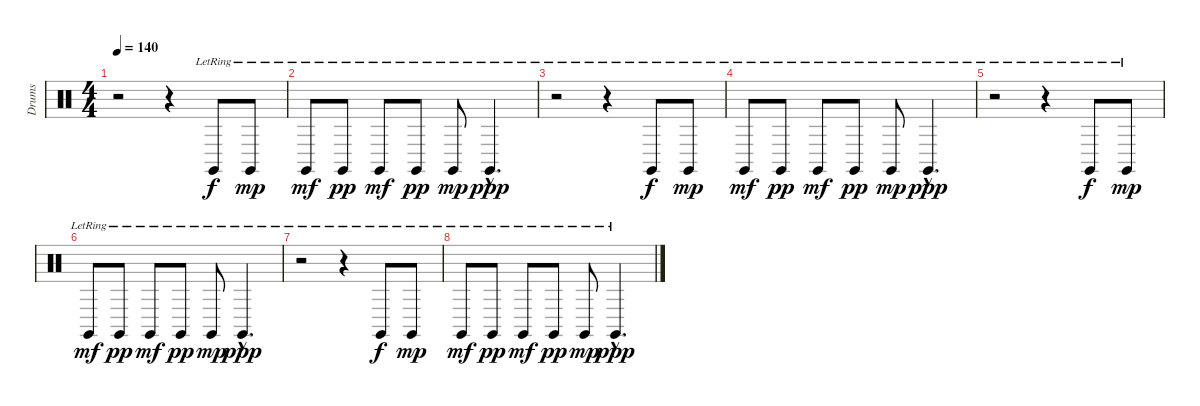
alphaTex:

\track ("Drums" "Drums") {instrument percussion}
\staff {score}
\articulation defaults
\ts (4 4)
\tempo 140
\clef neutral
\ks c
r.2{dy f} r.4 "Claves (hit)"{lr}.8 "Claves (hit)"{lr}.8{dy mp} |
"Claves (hit)"{lr}.8{dy mf} "Claves (hit)"{lr}.8{dy pp} "Claves (hit)"{lr}.8{dy mf} "Claves (hit)"{lr}.8{dy pp} "Claves (hit)"{lr}.8{dy mp} "Claves (hit)"{hac lr}.4{d dy ppp} |
r.2 r.4 "Claves (hit)"{lr}.8{dy f} "Claves (hit)"{lr}.8{dy mp} |
"Claves (hit)"{lr}.8{dy mf} "Claves (hit)"{lr}.8{dy pp} "Claves (hit)"{lr}.8{dy mf} "Claves (hit)"{lr}.8{dy pp} "Claves (hit)"{lr}.8{dy mp} "Claves (hit)"{hac lr}.4{d dy ppp} |
r.2 r.4 "Claves (hit)"{lr}.8{dy f} "Claves (hit)"{lr}.8{dy mp} |
"Claves (hit)"{lr}.8{dy mf} "Claves (hit)"{lr}.8{dy pp} "Claves (hit)"{lr}.8{dy mf} "Claves (hit)"{lr}.8{dy pp} "Claves (hit)"{lr}.8{dy mp} "Claves (hit)"{hac lr}.4{d dy ppp} |
r.2 r.4 "Claves (hit)"{lr}.8{dy f} "Claves (hit)"{lr}.8{dy mp} |
"Claves (hit)"{lr}.8{dy mf} "Claves (hit)"{lr}.8{dy pp} "Claves (hit)"{lr}.8{dy mf} "Claves (hit)"{lr}.8{dy pp} "Claves (hit)"{lr}.8{dy mp} "Claves (hit)"{hac lr}.4{d dy ppp}
